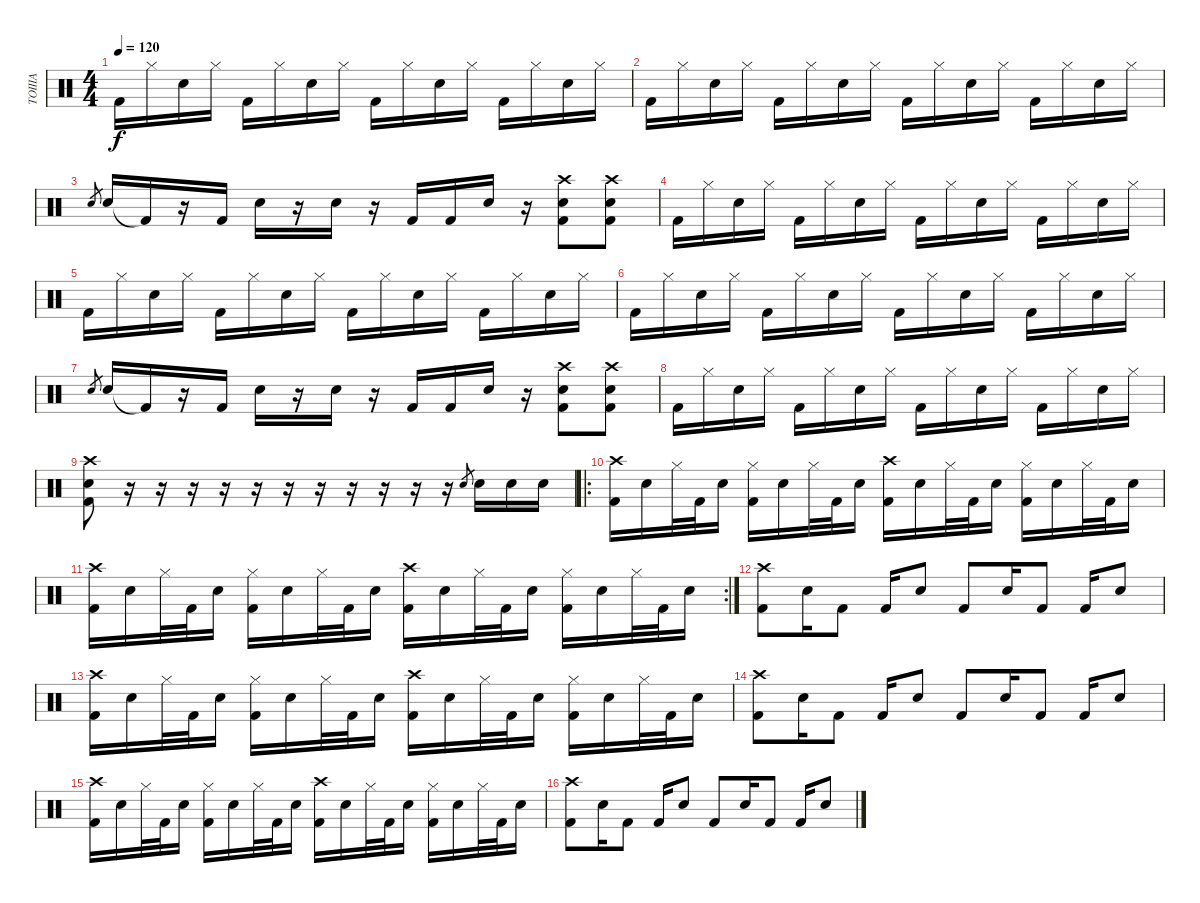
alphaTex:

\track ("TOIIIA" "TOIIIA") {instrument percussion}
\staff
\articulation defaults
\ts (4 4)
\tempo 120
\clef neutral
\ks c "Kick (hit) 2".16{dy f} "Hi-Hat (closed)".16 "Electric Snare (hit)".16 "Hi-Hat (closed)".16 "Kick (hit) 2".16 "Hi-Hat (closed)".16 "Electric Snare (hit)".16 "Hi-Hat (closed)".16 "Kick (hit) 2".16 "Hi-Hat (closed)".16 "Electric Snare (hit)".16 "Hi-Hat (closed)".16 "Kick (hit) 2".16 "Hi-Hat (closed)".16 "Electric Snare (hit)".16 "Hi-Hat (closed)".16
|
"Kick (hit) 2".16 "Hi-Hat (closed)".16 "Electric Snare (hit)".16 "Hi-Hat (closed)".16 "Kick (hit) 2".16 "Hi-Hat (closed)".16 "Electric Snare (hit)".16 "Hi-Hat (closed)".16 "Kick (hit) 2".16 "Hi-Hat (closed)".16 "Electric Snare (hit)".16 "Hi-Hat (closed)".16 "Kick (hit) 2".16 "Hi-Hat (closed)".16 "Electric Snare (hit)".16 "Hi-Hat (closed)".16 |
"Electric Snare (hit)".8{gr} "Electric Snare (hit)".16 "Kick (hit) 2"{t}.16 r.16 "Kick (hit) 2".16 "Electric Snare (hit)".16 r.16 "Electric Snare (hit)".16 r.16 "Kick (hit) 2".16 "Kick (hit) 2".16 "Electric Snare (hit)".16 r.16 ("Crash high (hit)" "Kick (hit) 2" "Electric Snare (hit)").8 ("Crash high (hit)" "Kick (hit) 2" "Electric Snare (hit)").8 |
"Kick (hit) 2".16 "Hi-Hat (closed)".16 "Electric Snare (hit)".16 "Hi-Hat (closed)".16 "Kick (hit) 2".16 "Hi-Hat (closed)".16 "Electric Snare (hit)".16 "Hi-Hat (closed)".16 "Kick (hit) 2".16 "Hi-Hat (closed)".16 "Electric Snare (hit)".16 "Hi-Hat (closed)".16 "Kick (hit) 2".16 "Hi-Hat (closed)".16 "Electric Snare (hit)".16 "Hi-Hat (closed)".16 |
"Kick (hit) 2".16 "Hi-Hat (closed)".16 "Electric Snare (hit)".16 "Hi-Hat (closed)".16 "Kick (hit) 2".16 "Hi-Hat (closed)".16 "Electric Snare (hit)".16 "Hi-Hat (closed)".16 "Kick (hit) 2".16 "Hi-Hat (closed)".16 "Electric Snare (hit)".16 "Hi-Hat (closed)".16 "Kick (hit) 2".16 "Hi-Hat (closed)".16 "Electric Snare (hit)".16 "Hi-Hat (closed)".16 |
"Kick (hit) 2".16 "Hi-Hat (closed)".16 "Electric Snare (hit)".16 "Hi-Hat (closed)".16 "Kick (hit) 2".16 "Hi-Hat (closed)".16 "Electric Snare (hit)".16 "Hi-Hat (closed)".16 "Kick (hit) 2".16 "Hi-Hat (closed)".16 "Electric Snare (hit)".16 "Hi-Hat (closed)".16 "Kick (hit) 2".16 "Hi-Hat (closed)".16 "Electric Snare (hit)".16 "Hi-Hat (closed)".16 |
"Electric Snare (hit)".8{gr} "Electric Snare (hit)".16 "Kick (hit) 2"{t}.16 r.16 "Kick (hit) 2".16 "Electric Snare (hit)".16 r.16 "Electric Snare (hit)".16 r.16 "Kick (hit) 2".16 "Kick (hit) 2".16 "Electric Snare (hit)".16 r.16 ("Crash high (hit)" "Kick (hit) 2" "Electric Snare (hit)").8 ("Crash high (hit)" "Kick (hit) 2" "Electric Snare (hit)").8 |
"Kick (hit) 2".16 "Hi-Hat (closed)".16 "Electric Snare (hit)".16 "Hi-Hat (closed)".16 "Kick (hit) 2".16 "Hi-Hat (closed)".16 "Electric Snare (hit)".16 "Hi-Hat (closed)".16 "Kick (hit) 2".16 "Hi-Hat (closed)".16 "Electric Snare (hit)".16 "Hi-Hat (closed)".16 "Kick (hit) 2".16 "Hi-Hat (closed)".16 "Electric Snare (hit)".16 "Hi-Hat (closed)".16 |
("Kick (hit) 2" "Crash high (hit)" "Electric Snare (hit)").8 r.16 r.16 r.16 r.16 r.16 r.16 r.16 r.16 r.16 r.16 r.16 "Electric Snare (hit)".8{gr} "Electric Snare (hit)".16 "Electric Snare (hit)".16 "Electric Snare (hit)".16 |
\ro
("Kick (hit) 2" "Crash high (hit)").16 "Electric Snare (hit)".16 "Hi-Hat (closed)".32 "Kick (hit) 2".32 "Electric Snare (hit)".16 ("Kick (hit) 2" "Hi-Hat (closed)").16 "Electric Snare (hit)".16 "Hi-Hat (closed)".32 "Kick (hit) 2".32 "Electric Snare (hit)".16 ("Kick (hit) 2" "Crash high (hit)").16 "Electric Snare (hit)".16 "Hi-Hat (closed)".32 "Kick (hit) 2".32 "Electric Snare (hit)".16 ("Kick (hit) 2" "Hi-Hat (closed)").16 "Electric Snare (hit)".16 "Hi-Hat (closed)".32 "Kick (hit) 2".32 "Electric Snare (hit)".16 |
\rc 2
("Kick (hit) 2" "Crash high (hit)").16 "Electric Snare (hit)".16 "Hi-Hat (closed)".32 "Kick (hit) 2".32 "Electric Snare (hit)".16 ("Kick (hit) 2" "Hi-Hat (closed)").16 "Electric Snare (hit)".16 "Hi-Hat (closed)".32 "Kick (hit) 2".32 "Electric Snare (hit)".16 ("Kick (hit) 2" "Crash high (hit)").16 "Electric Snare (hit)".16 "Hi-Hat (closed)".32 "Kick (hit) 2".32 "Electric Snare (hit)".16 ("Kick (hit) 2" "Hi-Hat (closed)").16 "Electric Snare (hit)".16 "Hi-Hat (closed)".32 "Kick (hit) 2".32 "Electric Snare (hit)".16 |
("Crash high (hit)" "Kick (hit) 2").8 "Electric Snare (hit)".16 "Kick (hit) 2".8 "Kick (hit) 2".16 "Electric Snare (hit)".8 "Kick (hit) 2".8 "Electric Snare (hit)".16 "Kick (hit) 2".8 "Kick (hit) 2".16 "Electric Snare (hit)".8 |
("Kick (hit) 2" "Crash high (hit)").16 "Electric Snare (hit)".16 "Hi-Hat (closed)".32 "Kick (hit) 2".32 "Electric Snare (hit)".16 ("Kick (hit) 2" "Hi-Hat (closed)").16 "Electric Snare (hit)".16 "Hi-Hat (closed)".32 "Kick (hit) 2".32 "Electric Snare (hit)".16 ("Kick (hit) 2" "Crash high (hit)").16 "Electric Snare (hit)".16 "Hi-Hat (closed)".32 "Kick (hit) 2".32 "Electric Snare (hit)".16 ("Kick (hit) 2" "Hi-Hat (closed)").16 "Electric Snare (hit)".16 "Hi-Hat (closed)".32 "Kick (hit) 2".32 "Electric Snare (hit)".16 |
("Crash high (hit)" "Kick (hit) 2").8 "Electric Snare (hit)".16 "Kick (hit) 2".8 "Kick (hit) 2".16 "Electric Snare (hit)".8 "Kick (hit) 2".8 "Electric Snare (hit)".16 "Kick (hit) 2".8 "Kick (hit) 2".16 "Electric Snare (hit)".8 |
("Kick (hit) 2" "Crash high (hit)").16 "Electric Snare (hit)".16 "Hi-Hat (closed)".32 "Kick (hit) 2".32 "Electric Snare (hit)".16 ("Kick (hit) 2" "Hi-Hat (closed)").16 "Electric Snare (hit)".16 "Hi-Hat (closed)".32 "Kick (hit) 2".32 "Electric Snare (hit)".16 ("Kick (hit) 2" "Crash high (hit)").16 "Electric Snare (hit)".16 "Hi-Hat (closed)".32 "Kick (hit) 2".32 "Electric Snare (hit)".16 ("Kick (hit) 2" "Hi-Hat (closed)").16 "Electric Snare (hit)".16 "Hi-Hat (closed)".32 "Kick (hit) 2".32 "Electric Snare (hit)".16 |
("Crash high (hit)" "Kick (hit) 2").8 "Electric Snare (hit)".16 "Kick (hit) 2".8 "Kick (hit) 2".16 "Electric Snare (hit)".8 "Kick (hit) 2".8 "Electric Snare (hit)".16 "Kick (hit) 2".8 "Kick (hit) 2".16 "Electric Snare (hit)".8
